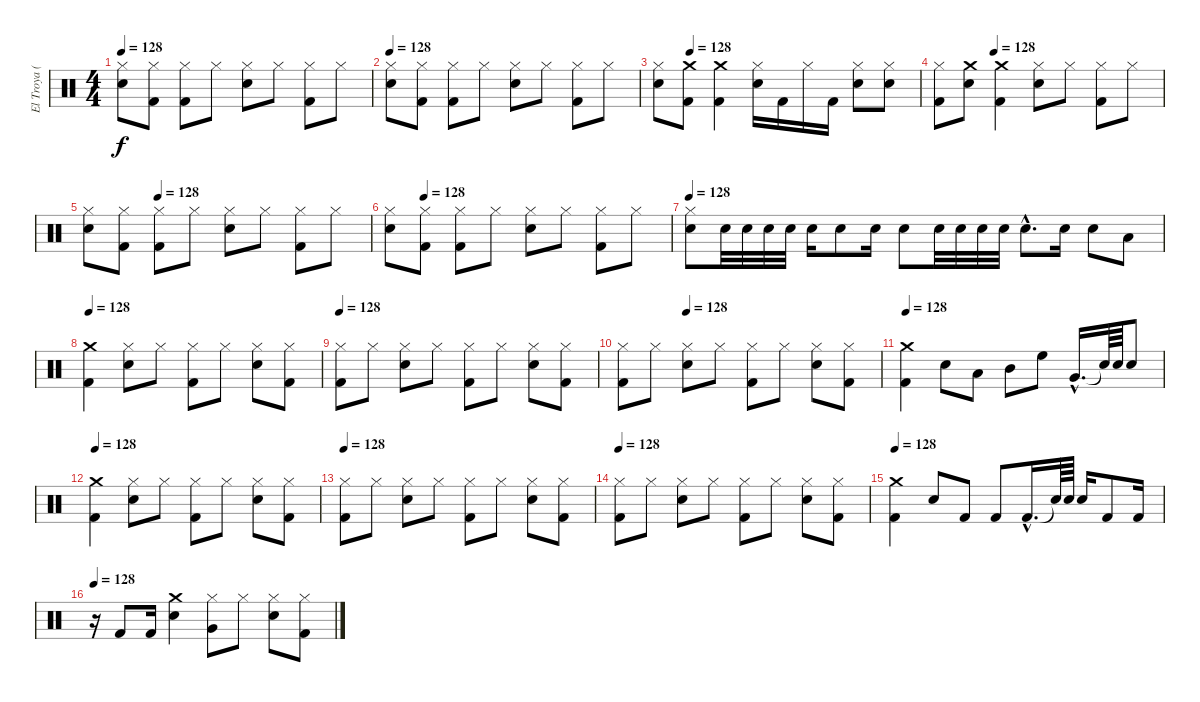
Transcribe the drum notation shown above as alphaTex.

\track ("El Troya (premio)" "El Troya (") {instrument percussion}
\staff {score}
\articulation defaults
\ts (4 4)
\tempo 128
\clef neutral
\ks c
("Hi-Hat (closed)" "Snare (hit) 2").8{dy f} ("Kick (hit) 2" "Hi-Hat (closed)").8 ("Hi-Hat (closed)" "Kick (hit) 2").8 "Hi-Hat (closed)".8 ("Hi-Hat (closed)" "Snare (hit) 2").8 "Hi-Hat (closed)".8 ("Hi-Hat (closed)" "Kick (hit) 2").8 "Hi-Hat (closed)".8 |
\tempo 128
("Hi-Hat (closed)" "Snare (hit) 2").8 ("Kick (hit) 2" "Hi-Hat (closed)").8 ("Hi-Hat (closed)" "Kick (hit) 2").8 "Hi-Hat (closed)".8 ("Hi-Hat (closed)" "Snare (hit) 2").8 "Hi-Hat (closed)".8 ("Hi-Hat (closed)" "Kick (hit) 2").8 "Hi-Hat (closed)".8 |
\tempo (128 0.125)
("Hi-Hat (closed)" "Snare (hit) 2").8 ("Kick (hit) 2" "Crash medium (hit)").8 ("Kick (hit) 2" "Crash medium (hit)").4 ("Hi-Hat (closed)" "Snare (hit) 2").16 "Kick (hit) 2".16 "Hi-Hat (closed)".16 "Kick (hit) 2".16 ("Snare (hit) 2" "Hi-Hat (closed)").8 ("Snare (hit) 2" "Hi-Hat (closed)").8 |
\tempo (128 0.25)
("Kick (hit) 2" "Hi-Hat (closed)").8 ("Crash medium (hit)" "Snare (hit) 2").8 ("Kick (hit) 2" "Crash medium (hit)").4 ("Hi-Hat (closed)" "Snare (hit) 2").8 "Hi-Hat (closed)".8 ("Kick (hit) 2" "Hi-Hat (closed)").8 "Hi-Hat (closed)".8 |
\tempo (128 0.25)
("Hi-Hat (closed)" "Snare (hit) 2").8 ("Kick (hit) 2" "Hi-Hat (closed)").8 ("Hi-Hat (closed)" "Kick (hit) 2").8 "Hi-Hat (closed)".8 ("Hi-Hat (closed)" "Snare (hit) 2").8 "Hi-Hat (closed)".8 ("Hi-Hat (closed)" "Kick (hit) 2").8 "Hi-Hat (closed)".8 |
\tempo (128 0.125)
("Hi-Hat (closed)" "Snare (hit) 2").8 ("Kick (hit) 2" "Hi-Hat (closed)").8 ("Hi-Hat (closed)" "Kick (hit) 2").8 "Hi-Hat (closed)".8 ("Hi-Hat (closed)" "Snare (hit) 2").8 "Hi-Hat (closed)".8 ("Hi-Hat (closed)" "Kick (hit) 2").8 "Hi-Hat (closed)".8 |
\tempo 128
("Snare (hit) 2" "Hi-Hat (closed)").8 "Snare (hit) 2".32 "Snare (hit) 2".32 "Snare (hit) 2".32 "Snare (hit) 2".32 "Snare (hit) 2".16 "Snare (hit) 2".8 "Snare (hit) 2".16 "Snare (hit) 2".8 "Snare (hit) 2".32 "Snare (hit) 2".32 "Snare (hit) 2".32 "Snare (hit) 2".32 "Snare (hit) 2"{hac}.8{d} "Snare (hit) 2".16 "Snare (hit) 2".8 "Low Tom (hit)".8 |
\tempo 128
("Kick (hit) 2" "Crash medium (hit)").4 ("Snare (hit) 2" "Hi-Hat (closed)").8 "Hi-Hat (closed)".8 ("Hi-Hat (closed)" "Kick (hit) 2").8 "Hi-Hat (closed)".8 ("Snare (hit) 2" "Hi-Hat (closed)").8 ("Kick (hit) 2" "Hi-Hat (closed)").8 |
\tempo 128
("Hi-Hat (closed)" "Kick (hit) 2").8 "Hi-Hat (closed)".8 ("Snare (hit) 2" "Hi-Hat (closed)").8 "Hi-Hat (closed)".8 ("Hi-Hat (closed)" "Kick (hit) 2").8 "Hi-Hat (closed)".8 ("Snare (hit) 2" "Hi-Hat (closed)").8 ("Kick (hit) 2" "Hi-Hat (closed)").8 |
\tempo (128 0.25)
("Hi-Hat (closed)" "Kick (hit) 2").8 "Hi-Hat (closed)".8 ("Snare (hit) 2" "Hi-Hat (closed)").8 "Hi-Hat (closed)".8 ("Hi-Hat (closed)" "Kick (hit) 2").8 "Hi-Hat (closed)".8 ("Snare (hit) 2" "Hi-Hat (closed)").8 ("Kick (hit) 2" "Hi-Hat (closed)").8 |
\tempo 128
("Kick (hit) 2" "Crash medium (hit)").4 "Snare (hit) 2".8 "Low Tom (hit)".8 "Mid Tom (hit)".8 "High Floor Tom (hit)".8 "Very Low Tom (hit)"{hac}.16{d} "Snare (hit)"{t}.64 "Snare (hit) 2".64 "Snare (hit) 2".8 |
\tempo 128
("Kick (hit) 2" "Crash medium (hit)").4 ("Snare (hit) 2" "Hi-Hat (closed)").8 "Hi-Hat (closed)".8 ("Hi-Hat (closed)" "Kick (hit) 2").8 "Hi-Hat (closed)".8 ("Snare (hit) 2" "Hi-Hat (closed)").8 ("Kick (hit) 2" "Hi-Hat (closed)").8 |
\tempo 128
("Hi-Hat (closed)" "Kick (hit) 2").8 "Hi-Hat (closed)".8 ("Snare (hit) 2" "Hi-Hat (closed)").8 "Hi-Hat (closed)".8 ("Hi-Hat (closed)" "Kick (hit) 2").8 "Hi-Hat (closed)".8 ("Snare (hit) 2" "Hi-Hat (closed)").8 ("Kick (hit) 2" "Hi-Hat (closed)").8 |
\tempo 128
("Hi-Hat (closed)" "Kick (hit) 2").8 "Hi-Hat (closed)".8 ("Snare (hit) 2" "Hi-Hat (closed)").8 "Hi-Hat (closed)".8 ("Hi-Hat (closed)" "Kick (hit) 2").8 "Hi-Hat (closed)".8 ("Snare (hit) 2" "Hi-Hat (closed)").8 ("Kick (hit) 2" "Hi-Hat (closed)").8 |
\tempo 128
("Kick (hit) 2" "Crash medium (hit)").4 "Snare (hit) 2".8 "Kick (hit) 2".8 "Kick (hit) 2".8 "Kick (hit) 2"{hac}.16{d} "Snare (hit)"{t}.64 "Snare (hit) 2".64 "Snare (hit) 2".16 "Kick (hit) 2".8 "Kick (hit) 2".16 |
\tempo 128
r.16 "Kick (hit) 2".8 "Kick (hit) 2".16 ("Snare (hit) 2" "Crash medium (hit)").4 ("Very Low Tom (hit)" "Hi-Hat (closed)").8 "Hi-Hat (closed)".8 ("Snare (hit) 2" "Hi-Hat (closed)").8 ("Kick (hit) 2" "Hi-Hat (closed)").8
